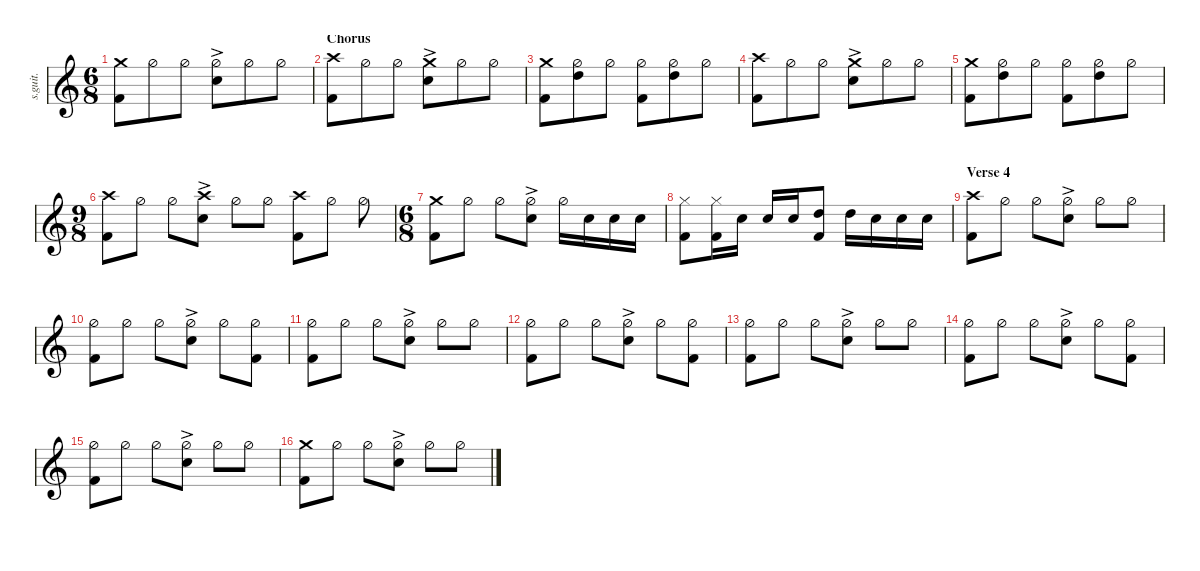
\defaultSystemsLayout 4
\hideDynamics
\bracketExtendMode nobrackets
\track ("Lars Ulrich - Drums" "s.guit.") {instrument percussion}
\staff {score}
\articulation defaults
\ts (6 8)
\tempo (71 hide)
\clef g2
\ks c
("Crash medium (hit)" "Kick (hit) 2").8{lyrics (0 "") lyrics (1 "") lyrics (2 "") lyrics (3 "") lyrics (4 "") dy ff} "Hi-Hat (half)".8{lyrics (0 "") lyrics (1 "") lyrics (2 "") lyrics (3 "") lyrics (4 "")} "Hi-Hat (half)".8{lyrics (0 "") lyrics (1 "") lyrics (2 "") lyrics (3 "") lyrics (4 "")} ("Hi-Hat (half)"{ac} "Snare (hit) 2"{ac}).8{lyrics (0 "") lyrics (1 "") lyrics (2 "") lyrics (3 "") lyrics (4 "")} "Hi-Hat (half)".8{lyrics (0 "") lyrics (1 "") lyrics (2 "") lyrics (3 "") lyrics (4 "")} "Hi-Hat (half)".8{lyrics (0 "") lyrics (1 "") lyrics (2 "") lyrics (3 "") lyrics (4 "")} |
\section ("" "Chorus")
("Crash high (hit)" "Kick (hit) 2").8{lyrics (0 "") lyrics (1 "") lyrics (2 "") lyrics (3 "") lyrics (4 "")} "Hi-Hat (half)".8{lyrics (0 "") lyrics (1 "") lyrics (2 "") lyrics (3 "") lyrics (4 "")} "Hi-Hat (half)".8{lyrics (0 "") lyrics (1 "") lyrics (2 "") lyrics (3 "") lyrics (4 "")} ("Crash medium (hit)"{ac} "Snare (hit) 2"{ac}).8{lyrics (0 "") lyrics (1 "") lyrics (2 "") lyrics (3 "") lyrics (4 "")} "Hi-Hat (half)".8{lyrics (0 "") lyrics (1 "") lyrics (2 "") lyrics (3 "") lyrics (4 "")} "Hi-Hat (half)".8{lyrics (0 "") lyrics (1 "") lyrics (2 "") lyrics (3 "") lyrics (4 "")} |
("Crash medium (hit)" "Kick (hit) 2").8{lyrics (0 "") lyrics (1 "") lyrics (2 "") lyrics (3 "") lyrics (4 "")} ("Hi-Hat (half)" "High Tom (hit)").8{lyrics (0 "") lyrics (1 "") lyrics (2 "") lyrics (3 "") lyrics (4 "")} "Hi-Hat (half)".8{lyrics (0 "") lyrics (1 "") lyrics (2 "") lyrics (3 "") lyrics (4 "")} ("Hi-Hat (half)" "Kick (hit) 2").8{lyrics (0 "") lyrics (1 "") lyrics (2 "") lyrics (3 "") lyrics (4 "")} ("Hi-Hat (half)" "High Tom (hit)").8{lyrics (0 "") lyrics (1 "") lyrics (2 "") lyrics (3 "") lyrics (4 "")} "Hi-Hat (half)".8{lyrics (0 "") lyrics (1 "") lyrics (2 "") lyrics (3 "") lyrics (4 "")} |
("Crash high (hit)" "Kick (hit) 2").8{lyrics (0 "") lyrics (1 "") lyrics (2 "") lyrics (3 "") lyrics (4 "")} "Hi-Hat (half)".8{lyrics (0 "") lyrics (1 "") lyrics (2 "") lyrics (3 "") lyrics (4 "")} "Hi-Hat (half)".8{lyrics (0 "") lyrics (1 "") lyrics (2 "") lyrics (3 "") lyrics (4 "")} ("Crash medium (hit)"{ac} "Snare (hit) 2"{ac}).8{lyrics (0 "") lyrics (1 "") lyrics (2 "") lyrics (3 "") lyrics (4 "")} "Hi-Hat (half)".8{lyrics (0 "") lyrics (1 "") lyrics (2 "") lyrics (3 "") lyrics (4 "")} "Hi-Hat (half)".8{lyrics (0 "") lyrics (1 "") lyrics (2 "") lyrics (3 "") lyrics (4 "")} |
("Crash medium (hit)" "Kick (hit) 2").8{lyrics (0 "") lyrics (1 "") lyrics (2 "") lyrics (3 "") lyrics (4 "")} ("Hi-Hat (half)" "High Tom (hit)").8{lyrics (0 "") lyrics (1 "") lyrics (2 "") lyrics (3 "") lyrics (4 "")} "Hi-Hat (half)".8{lyrics (0 "") lyrics (1 "") lyrics (2 "") lyrics (3 "") lyrics (4 "")} ("Hi-Hat (half)" "Kick (hit) 2").8{lyrics (0 "") lyrics (1 "") lyrics (2 "") lyrics (3 "") lyrics (4 "")} ("Hi-Hat (half)" "High Tom (hit)").8{lyrics (0 "") lyrics (1 "") lyrics (2 "") lyrics (3 "") lyrics (4 "")} "Hi-Hat (half)".8{lyrics (0 "") lyrics (1 "") lyrics (2 "") lyrics (3 "") lyrics (4 "")} |
\ts (9 8)
\beaming (8 2 2 2 2)
("Crash high (hit)" "Kick (hit) 2").8{lyrics (0 "") lyrics (1 "") lyrics (2 "") lyrics (3 "") lyrics (4 "")} "Hi-Hat (half)".8{lyrics (0 "") lyrics (1 "") lyrics (2 "") lyrics (3 "") lyrics (4 "")} "Hi-Hat (half)".8{lyrics (0 "") lyrics (1 "") lyrics (2 "") lyrics (3 "") lyrics (4 "")} ("Snare (hit) 2"{ac} "Crash high (hit)"{ac}).8{lyrics (0 "") lyrics (1 "") lyrics (2 "") lyrics (3 "") lyrics (4 "")} "Hi-Hat (half)".8{lyrics (0 "") lyrics (1 "") lyrics (2 "") lyrics (3 "") lyrics (4 "")} "Hi-Hat (half)".8{lyrics (0 "") lyrics (1 "") lyrics (2 "") lyrics (3 "") lyrics (4 "")} ("Crash high (hit)" "Kick (hit) 2").8{lyrics (0 "") lyrics (1 "") lyrics (2 "") lyrics (3 "") lyrics (4 "")} "Hi-Hat (half)".8{lyrics (0 "") lyrics (1 "") lyrics (2 "") lyrics (3 "") lyrics (4 "")} "Hi-Hat (half)".8{lyrics (0 "") lyrics (1 "") lyrics (2 "") lyrics (3 "") lyrics (4 "")} |
\ts (6 8)
\beaming (8 2 2 2 2)
("Crash medium (hit)" "Kick (hit) 2").8{lyrics (0 "") lyrics (1 "") lyrics (2 "") lyrics (3 "") lyrics (4 "")} "Hi-Hat (half)".8{lyrics (0 "") lyrics (1 "") lyrics (2 "") lyrics (3 "") lyrics (4 "")} "Hi-Hat (half)".8{lyrics (0 "") lyrics (1 "") lyrics (2 "") lyrics (3 "") lyrics (4 "")} ("Hi-Hat (half)"{ac} "Snare (hit) 2"{ac}).8{lyrics (0 "") lyrics (1 "") lyrics (2 "") lyrics (3 "") lyrics (4 "")} "Hi-Hat (half)".16{lyrics (0 "") lyrics (1 "") lyrics (2 "") lyrics (3 "") lyrics (4 "")} "Snare (hit) 2".16{lyrics (0 "") lyrics (1 "") lyrics (2 "") lyrics (3 "") lyrics (4 "")} "Snare (hit) 2".16{lyrics (0 "") lyrics (1 "") lyrics (2 "") lyrics (3 "") lyrics (4 "")} "Snare (hit) 2".16{lyrics (0 "") lyrics (1 "") lyrics (2 "") lyrics (3 "") lyrics (4 "")} |
("Hi-Hat (closed)" "Kick (hit) 2").8{lyrics (0 "") lyrics (1 "") lyrics (2 "") lyrics (3 "") lyrics (4 "")} ("Hi-Hat (closed)" "Kick (hit) 2").16{lyrics (0 "") lyrics (1 "") lyrics (2 "") lyrics (3 "") lyrics (4 "")} "Snare (hit) 2".16{lyrics (0 "") lyrics (1 "") lyrics (2 "") lyrics (3 "") lyrics (4 "")} "Snare (hit) 2".16{lyrics (0 "") lyrics (1 "") lyrics (2 "") lyrics (3 "") lyrics (4 "")} "Snare (hit) 2".16{lyrics (0 "") lyrics (1 "") lyrics (2 "") lyrics (3 "") lyrics (4 "")} ("Kick (hit) 2" "High Tom (hit)").8{lyrics (0 "") lyrics (1 "") lyrics (2 "") lyrics (3 "") lyrics (4 "")} "High Tom (hit)".16{lyrics (0 "") lyrics (1 "") lyrics (2 "") lyrics (3 "") lyrics (4 "")} "Snare (hit) 2".16{lyrics (0 "") lyrics (1 "") lyrics (2 "") lyrics (3 "") lyrics (4 "")} "Snare (hit) 2".16{lyrics (0 "") lyrics (1 "") lyrics (2 "") lyrics (3 "") lyrics (4 "")} "Snare (hit) 2".16{lyrics (0 "") lyrics (1 "") lyrics (2 "") lyrics (3 "") lyrics (4 "")} |
\section ("" "Verse 4")
("Crash high (hit)" "Kick (hit) 2").8{lyrics (0 "") lyrics (1 "") lyrics (2 "") lyrics (3 "") lyrics (4 "")} "Hi-Hat (half)".8{lyrics (0 "") lyrics (1 "") lyrics (2 "") lyrics (3 "") lyrics (4 "")} "Hi-Hat (half)".8{lyrics (0 "") lyrics (1 "") lyrics (2 "") lyrics (3 "") lyrics (4 "")} ("Hi-Hat (half)"{ac} "Snare (hit) 2"{ac}).8{lyrics (0 "") lyrics (1 "") lyrics (2 "") lyrics (3 "") lyrics (4 "")} "Hi-Hat (half)".8{lyrics (0 "") lyrics (1 "") lyrics (2 "") lyrics (3 "") lyrics (4 "")} "Hi-Hat (half)".8{lyrics (0 "") lyrics (1 "") lyrics (2 "") lyrics (3 "") lyrics (4 "")} |
("Hi-Hat (half)" "Kick (hit) 2").8{lyrics (0 "") lyrics (1 "") lyrics (2 "") lyrics (3 "") lyrics (4 "")} "Hi-Hat (half)".8{lyrics (0 "") lyrics (1 "") lyrics (2 "") lyrics (3 "") lyrics (4 "")} "Hi-Hat (half)".8{lyrics (0 "") lyrics (1 "") lyrics (2 "") lyrics (3 "") lyrics (4 "")} ("Hi-Hat (half)"{ac} "Snare (hit) 2"{ac}).8{lyrics (0 "") lyrics (1 "") lyrics (2 "") lyrics (3 "") lyrics (4 "")} "Hi-Hat (half)".8{lyrics (0 "") lyrics (1 "") lyrics (2 "") lyrics (3 "") lyrics (4 "")} ("Hi-Hat (half)" "Kick (hit) 2").8{lyrics (0 "") lyrics (1 "") lyrics (2 "") lyrics (3 "") lyrics (4 "")} |
("Hi-Hat (half)" "Kick (hit) 2").8{lyrics (0 "") lyrics (1 "") lyrics (2 "") lyrics (3 "") lyrics (4 "")} "Hi-Hat (half)".8{lyrics (0 "") lyrics (1 "") lyrics (2 "") lyrics (3 "") lyrics (4 "")} "Hi-Hat (half)".8{lyrics (0 "") lyrics (1 "") lyrics (2 "") lyrics (3 "") lyrics (4 "")} ("Hi-Hat (half)"{ac} "Snare (hit) 2"{ac}).8{lyrics (0 "") lyrics (1 "") lyrics (2 "") lyrics (3 "") lyrics (4 "")} "Hi-Hat (half)".8{lyrics (0 "") lyrics (1 "") lyrics (2 "") lyrics (3 "") lyrics (4 "")} "Hi-Hat (half)".8{lyrics (0 "") lyrics (1 "") lyrics (2 "") lyrics (3 "") lyrics (4 "")} |
("Hi-Hat (half)" "Kick (hit) 2").8{lyrics (0 "") lyrics (1 "") lyrics (2 "") lyrics (3 "") lyrics (4 "")} "Hi-Hat (half)".8{lyrics (0 "") lyrics (1 "") lyrics (2 "") lyrics (3 "") lyrics (4 "")} "Hi-Hat (half)".8{lyrics (0 "") lyrics (1 "") lyrics (2 "") lyrics (3 "") lyrics (4 "")} ("Hi-Hat (half)"{ac} "Snare (hit) 2"{ac}).8{lyrics (0 "") lyrics (1 "") lyrics (2 "") lyrics (3 "") lyrics (4 "")} "Hi-Hat (half)".8{lyrics (0 "") lyrics (1 "") lyrics (2 "") lyrics (3 "") lyrics (4 "")} ("Hi-Hat (half)" "Kick (hit) 2").8{lyrics (0 "") lyrics (1 "") lyrics (2 "") lyrics (3 "") lyrics (4 "")} |
("Hi-Hat (half)" "Kick (hit) 2").8{lyrics (0 "") lyrics (1 "") lyrics (2 "") lyrics (3 "") lyrics (4 "")} "Hi-Hat (half)".8{lyrics (0 "") lyrics (1 "") lyrics (2 "") lyrics (3 "") lyrics (4 "")} "Hi-Hat (half)".8{lyrics (0 "") lyrics (1 "") lyrics (2 "") lyrics (3 "") lyrics (4 "")} ("Hi-Hat (half)"{ac} "Snare (hit) 2"{ac}).8{lyrics (0 "") lyrics (1 "") lyrics (2 "") lyrics (3 "") lyrics (4 "")} "Hi-Hat (half)".8{lyrics (0 "") lyrics (1 "") lyrics (2 "") lyrics (3 "") lyrics (4 "")} "Hi-Hat (half)".8{lyrics (0 "") lyrics (1 "") lyrics (2 "") lyrics (3 "") lyrics (4 "")} |
("Hi-Hat (half)" "Kick (hit) 2").8{lyrics (0 "") lyrics (1 "") lyrics (2 "") lyrics (3 "") lyrics (4 "")} "Hi-Hat (half)".8{lyrics (0 "") lyrics (1 "") lyrics (2 "") lyrics (3 "") lyrics (4 "")} "Hi-Hat (half)".8{lyrics (0 "") lyrics (1 "") lyrics (2 "") lyrics (3 "") lyrics (4 "")} ("Hi-Hat (half)"{ac} "Snare (hit) 2"{ac}).8{lyrics (0 "") lyrics (1 "") lyrics (2 "") lyrics (3 "") lyrics (4 "")} "Hi-Hat (half)".8{lyrics (0 "") lyrics (1 "") lyrics (2 "") lyrics (3 "") lyrics (4 "")} ("Hi-Hat (half)" "Kick (hit) 2").8{lyrics (0 "") lyrics (1 "") lyrics (2 "") lyrics (3 "") lyrics (4 "")} |
("Hi-Hat (half)" "Kick (hit) 2").8{lyrics (0 "") lyrics (1 "") lyrics (2 "") lyrics (3 "") lyrics (4 "")} "Hi-Hat (half)".8{lyrics (0 "") lyrics (1 "") lyrics (2 "") lyrics (3 "") lyrics (4 "")} "Hi-Hat (half)".8{lyrics (0 "") lyrics (1 "") lyrics (2 "") lyrics (3 "") lyrics (4 "")} ("Hi-Hat (half)"{ac} "Snare (hit) 2"{ac}).8{lyrics (0 "") lyrics (1 "") lyrics (2 "") lyrics (3 "") lyrics (4 "")} "Hi-Hat (half)".8{lyrics (0 "") lyrics (1 "") lyrics (2 "") lyrics (3 "") lyrics (4 "")} "Hi-Hat (half)".8{lyrics (0 "") lyrics (1 "") lyrics (2 "") lyrics (3 "") lyrics (4 "")} |
("Crash medium (hit)" "Kick (hit) 2").8{lyrics (0 "") lyrics (1 "") lyrics (2 "") lyrics (3 "") lyrics (4 "")} "Hi-Hat (half)".8{lyrics (0 "") lyrics (1 "") lyrics (2 "") lyrics (3 "") lyrics (4 "")} "Hi-Hat (half)".8{lyrics (0 "") lyrics (1 "") lyrics (2 "") lyrics (3 "") lyrics (4 "")} ("Hi-Hat (half)"{ac} "Snare (hit) 2"{ac}).8{lyrics (0 "") lyrics (1 "") lyrics (2 "") lyrics (3 "") lyrics (4 "")} "Hi-Hat (half)".8{lyrics (0 "") lyrics (1 "") lyrics (2 "") lyrics (3 "") lyrics (4 "")} "Hi-Hat (half)".8{lyrics (0 "") lyrics (1 "") lyrics (2 "") lyrics (3 "") lyrics (4 "")}
